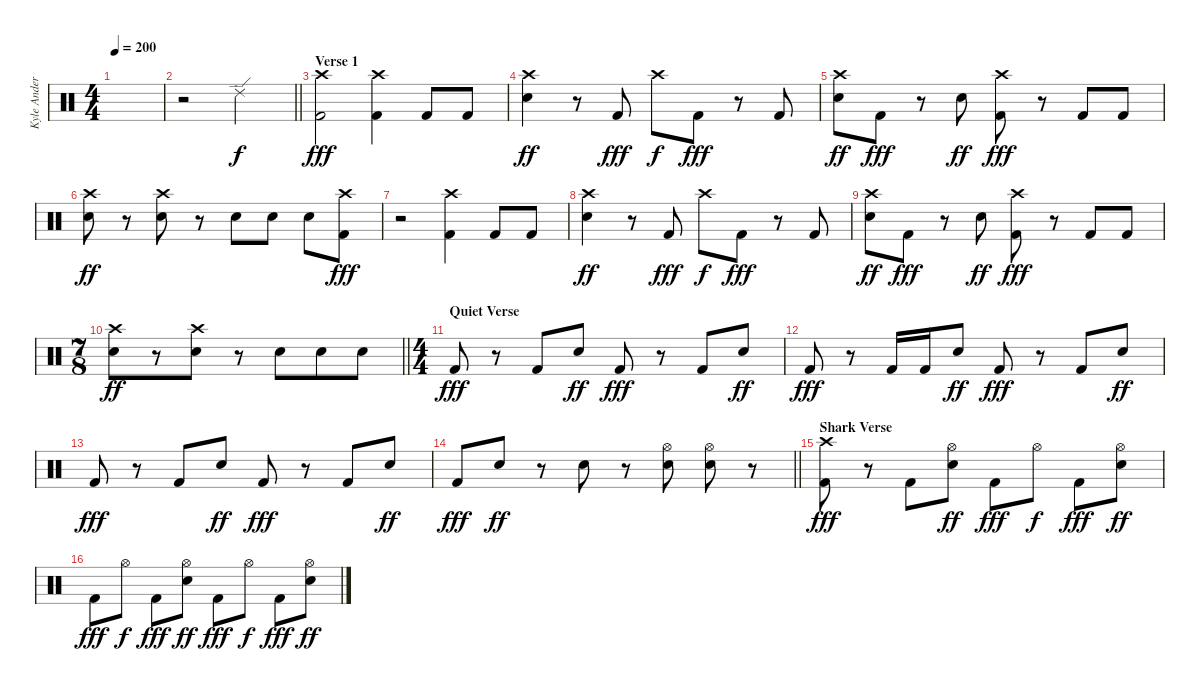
\track ("Kyle Anderson" "Kyle Ander") {instrument percussion}
\staff {score}
\articulation defaults
\ts (4 4)
\tempo 200
\clef neutral
\ks c
|
\barLineRight lightlight
r.2 "Ride (edge) 2".2 |
\section ("" "Verse 1")
("Crash high (hit)" "Kick (hit) 2").2{dy fff} ("Crash high (hit)" "Kick (hit) 2").4 "Kick (hit) 2".8 "Kick (hit) 2".8 |
("Crash high (hit)" "Electric Snare (hit)").4{dy ff} r.8 "Kick (hit) 2".8{dy fff} "Crash high (hit)".8{dy f} "Kick (hit) 2".8{dy fff} r.8 "Kick (hit) 2".8 |
("Crash high (hit)" "Electric Snare (hit)").8{dy ff} "Kick (hit) 2".8{dy fff} r.8 "Electric Snare (hit)".8{dy ff} ("Crash high (hit)" "Kick (hit) 2").8{dy fff} r.8 "Kick (hit) 2".8 "Kick (hit) 2".8 |
("Crash high (hit)" "Electric Snare (hit)").8{dy ff} r.8 ("Crash high (hit)" "Electric Snare (hit)").8 r.8 "Electric Snare (hit)".8 "Electric Snare (hit)".8 "Electric Snare (hit)".8 ("Crash high (hit)" "Kick (hit) 2").8{dy fff} |
r.2 ("Crash high (hit)" "Kick (hit) 2").4 "Kick (hit) 2".8 "Kick (hit) 2".8 |
("Crash high (hit)" "Electric Snare (hit)").4{dy ff} r.8 "Kick (hit) 2".8{dy fff} "Crash high (hit)".8{dy f} "Kick (hit) 2".8{dy fff} r.8 "Kick (hit) 2".8 |
("Crash high (hit)" "Electric Snare (hit)").8{dy ff} "Kick (hit) 2".8{dy fff} r.8 "Electric Snare (hit)".8{dy ff} ("Crash high (hit)" "Kick (hit) 2").8{dy fff} r.8 "Kick (hit) 2".8 "Kick (hit) 2".8 |
\ts (7 8)
\barLineRight lightlight
("Crash high (hit)" "Electric Snare (hit)").8{dy ff} r.8 ("Crash high (hit)" "Electric Snare (hit)").8 r.8 "Electric Snare (hit)".8 "Electric Snare (hit)".8 "Electric Snare (hit)".8 |
\ts (4 4)
\section ("" "Quiet Verse")
"Kick (hit) 2".8{dy fff} r.8 "Kick (hit) 2".8 "Electric Snare (hit)".8{dy ff} "Kick (hit) 2".8{dy fff} r.8 "Kick (hit) 2".8 "Electric Snare (hit)".8{dy ff} |
"Kick (hit) 2".8{dy fff} r.8 "Kick (hit) 2".16 "Kick (hit) 2".16 "Electric Snare (hit)".8{dy ff} "Kick (hit) 2".8{dy fff} r.8 "Kick (hit) 2".8 "Electric Snare (hit)".8{dy ff} |
"Kick (hit) 2".8{dy fff} r.8 "Kick (hit) 2".8 "Electric Snare (hit)".8{dy ff} "Kick (hit) 2".8{dy fff} r.8 "Kick (hit) 2".8 "Electric Snare (hit)".8{dy ff} |
\barLineRight lightlight "Kick (hit) 2".8{dy fff} "Electric Snare (hit)".8{dy ff}
r.8 "Electric Snare (hit)".8 r.8 ("Hi-Hat (open)" "Electric Snare (hit)").8 ("Hi-Hat (open)" "Electric Snare (hit)").8 r.8 |
\section ("" "Shark Verse")
("Crash high (hit)" "Kick (hit) 2").8{dy fff} r.8 "Kick (hit) 2".8 ("Hi-Hat (open)" "Electric Snare (hit)").8{dy ff} "Kick (hit) 2".8{dy fff} "Hi-Hat (open)".8{dy f} "Kick (hit) 2".8{dy fff} ("Hi-Hat (open)" "Electric Snare (hit)").8{dy ff} |
"Kick (hit) 2".8{dy fff} "Hi-Hat (open)".8{dy f} "Kick (hit) 2".8{dy fff} ("Hi-Hat (open)" "Electric Snare (hit)").8{dy ff} "Kick (hit) 2".8{dy fff} "Hi-Hat (open)".8{dy f} "Kick (hit) 2".8{dy fff} ("Hi-Hat (open)" "Electric Snare (hit)").8{dy ff}
